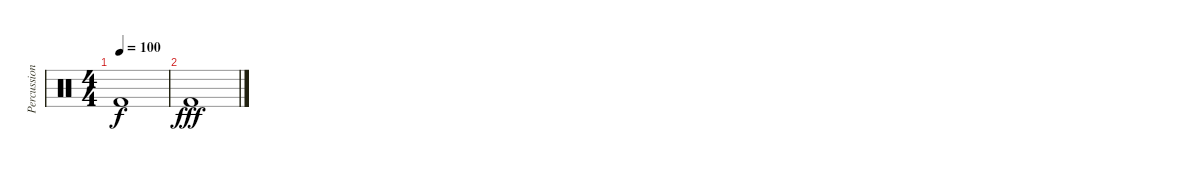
\track ("Percussions" "Percussion") {instrument percussion}
\staff {score}
\articulation defaults
\ts (4 4)
\tempo 100
\clef neutral
\ks c "Kick (hit) 2".1{dy f}
|
"Kick (hit) 2".1{dy fff}
